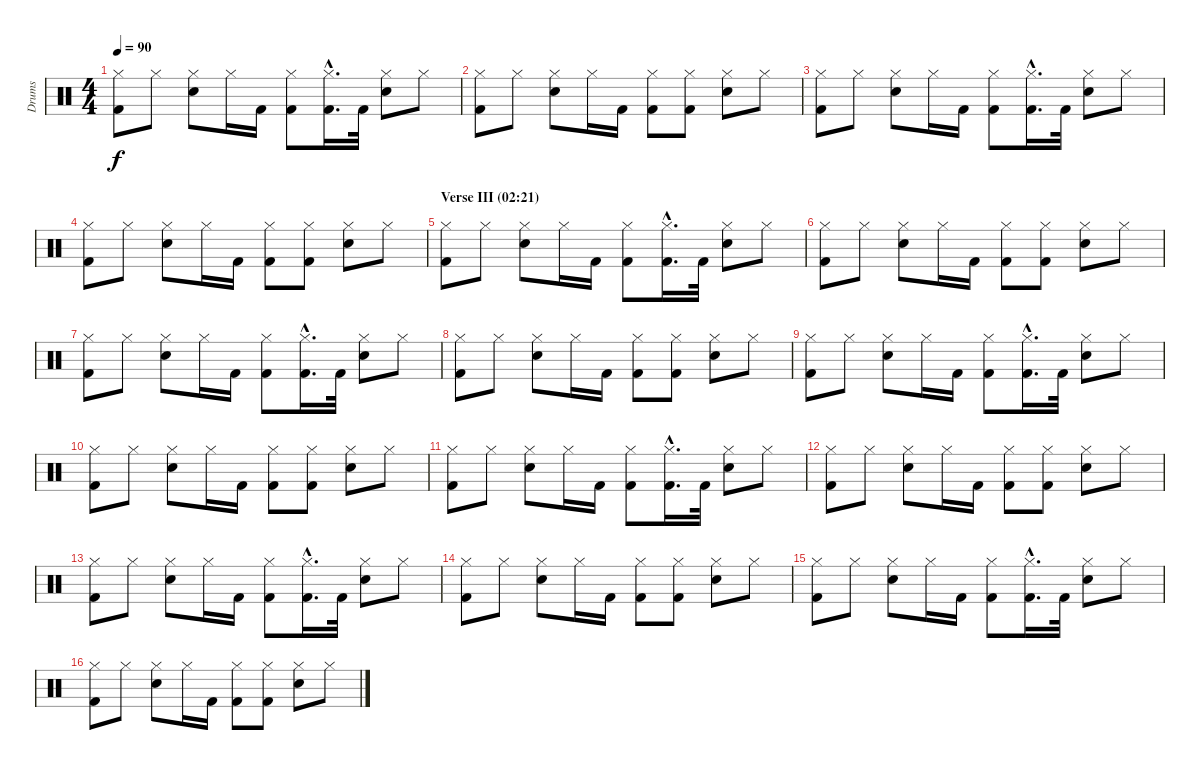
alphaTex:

\track ("Drums" "Drums") {instrument percussion}
\staff {score}
\articulation defaults
\ts (4 4)
\tempo 90
\clef neutral
\ks c
("Hi-Hat (closed)" "Kick (hit) 2").8{dy f} "Hi-Hat (closed)".8 ("Hi-Hat (closed)" "Electric Snare (hit)").8 "Hi-Hat (closed)".16 "Kick (hit) 2".16 ("Hi-Hat (closed)" "Kick (hit) 2").8 ("Hi-Hat (closed)"{hac} "Kick (hit) 2"{hac}).16{d} "Kick (hit) 2".32 ("Hi-Hat (closed)" "Electric Snare (hit)").8 "Hi-Hat (closed)".8 |
("Hi-Hat (closed)" "Kick (hit) 2").8 "Hi-Hat (closed)".8 ("Hi-Hat (closed)" "Electric Snare (hit)").8 "Hi-Hat (closed)".16 "Kick (hit) 2".16 ("Hi-Hat (closed)" "Kick (hit) 2").8 ("Hi-Hat (closed)" "Kick (hit) 2").8 ("Hi-Hat (closed)" "Electric Snare (hit)").8 "Hi-Hat (closed)".8 |
("Hi-Hat (closed)" "Kick (hit) 2").8 "Hi-Hat (closed)".8 ("Hi-Hat (closed)" "Electric Snare (hit)").8 "Hi-Hat (closed)".16 "Kick (hit) 2".16 ("Hi-Hat (closed)" "Kick (hit) 2").8 ("Hi-Hat (closed)"{hac} "Kick (hit) 2"{hac}).16{d} "Kick (hit) 2".32 ("Hi-Hat (closed)" "Electric Snare (hit)").8 "Hi-Hat (closed)".8 |
("Hi-Hat (closed)" "Kick (hit) 2").8 "Hi-Hat (closed)".8 ("Hi-Hat (closed)" "Electric Snare (hit)").8 "Hi-Hat (closed)".16 "Kick (hit) 2".16 ("Hi-Hat (closed)" "Kick (hit) 2").8 ("Hi-Hat (closed)" "Kick (hit) 2").8 ("Hi-Hat (closed)" "Electric Snare (hit)").8 "Hi-Hat (closed)".8 |
\section ("" "Verse III (02:21)")
("Hi-Hat (closed)" "Kick (hit) 2").8 "Hi-Hat (closed)".8 ("Hi-Hat (closed)" "Electric Snare (hit)").8 "Hi-Hat (closed)".16 "Kick (hit) 2".16 ("Hi-Hat (closed)" "Kick (hit) 2").8 ("Hi-Hat (closed)"{hac} "Kick (hit) 2"{hac}).16{d} "Kick (hit) 2".32 ("Hi-Hat (closed)" "Electric Snare (hit)").8 "Hi-Hat (closed)".8 |
("Hi-Hat (closed)" "Kick (hit) 2").8 "Hi-Hat (closed)".8 ("Hi-Hat (closed)" "Electric Snare (hit)").8 "Hi-Hat (closed)".16 "Kick (hit) 2".16 ("Hi-Hat (closed)" "Kick (hit) 2").8 ("Hi-Hat (closed)" "Kick (hit) 2").8 ("Hi-Hat (closed)" "Electric Snare (hit)").8 "Hi-Hat (closed)".8 |
("Hi-Hat (closed)" "Kick (hit) 2").8 "Hi-Hat (closed)".8 ("Hi-Hat (closed)" "Electric Snare (hit)").8 "Hi-Hat (closed)".16 "Kick (hit) 2".16 ("Hi-Hat (closed)" "Kick (hit) 2").8 ("Hi-Hat (closed)"{hac} "Kick (hit) 2"{hac}).16{d} "Kick (hit) 2".32 ("Hi-Hat (closed)" "Electric Snare (hit)").8 "Hi-Hat (closed)".8 |
("Hi-Hat (closed)" "Kick (hit) 2").8 "Hi-Hat (closed)".8 ("Hi-Hat (closed)" "Electric Snare (hit)").8 "Hi-Hat (closed)".16 "Kick (hit) 2".16 ("Hi-Hat (closed)" "Kick (hit) 2").8 ("Hi-Hat (closed)" "Kick (hit) 2").8 ("Hi-Hat (closed)" "Electric Snare (hit)").8 "Hi-Hat (closed)".8 |
("Hi-Hat (closed)" "Kick (hit) 2").8 "Hi-Hat (closed)".8 ("Hi-Hat (closed)" "Electric Snare (hit)").8 "Hi-Hat (closed)".16 "Kick (hit) 2".16 ("Hi-Hat (closed)" "Kick (hit) 2").8 ("Hi-Hat (closed)"{hac} "Kick (hit) 2"{hac}).16{d} "Kick (hit) 2".32 ("Hi-Hat (closed)" "Electric Snare (hit)").8 "Hi-Hat (closed)".8 |
("Hi-Hat (closed)" "Kick (hit) 2").8 "Hi-Hat (closed)".8 ("Hi-Hat (closed)" "Electric Snare (hit)").8 "Hi-Hat (closed)".16 "Kick (hit) 2".16 ("Hi-Hat (closed)" "Kick (hit) 2").8 ("Hi-Hat (closed)" "Kick (hit) 2").8 ("Hi-Hat (closed)" "Electric Snare (hit)").8 "Hi-Hat (closed)".8 |
("Hi-Hat (closed)" "Kick (hit) 2").8 "Hi-Hat (closed)".8 ("Hi-Hat (closed)" "Electric Snare (hit)").8 "Hi-Hat (closed)".16 "Kick (hit) 2".16 ("Hi-Hat (closed)" "Kick (hit) 2").8 ("Hi-Hat (closed)"{hac} "Kick (hit) 2"{hac}).16{d} "Kick (hit) 2".32 ("Hi-Hat (closed)" "Electric Snare (hit)").8 "Hi-Hat (closed)".8 |
("Hi-Hat (closed)" "Kick (hit) 2").8 "Hi-Hat (closed)".8 ("Hi-Hat (closed)" "Electric Snare (hit)").8 "Hi-Hat (closed)".16 "Kick (hit) 2".16 ("Hi-Hat (closed)" "Kick (hit) 2").8 ("Hi-Hat (closed)" "Kick (hit) 2").8 ("Hi-Hat (closed)" "Electric Snare (hit)").8 "Hi-Hat (closed)".8 |
("Hi-Hat (closed)" "Kick (hit) 2").8 "Hi-Hat (closed)".8 ("Hi-Hat (closed)" "Electric Snare (hit)").8 "Hi-Hat (closed)".16 "Kick (hit) 2".16 ("Hi-Hat (closed)" "Kick (hit) 2").8 ("Hi-Hat (closed)"{hac} "Kick (hit) 2"{hac}).16{d} "Kick (hit) 2".32 ("Hi-Hat (closed)" "Electric Snare (hit)").8 "Hi-Hat (closed)".8 |
("Hi-Hat (closed)" "Kick (hit) 2").8 "Hi-Hat (closed)".8 ("Hi-Hat (closed)" "Electric Snare (hit)").8 "Hi-Hat (closed)".16 "Kick (hit) 2".16 ("Hi-Hat (closed)" "Kick (hit) 2").8 ("Hi-Hat (closed)" "Kick (hit) 2").8 ("Hi-Hat (closed)" "Electric Snare (hit)").8 "Hi-Hat (closed)".8 |
("Hi-Hat (closed)" "Kick (hit) 2").8 "Hi-Hat (closed)".8 ("Hi-Hat (closed)" "Electric Snare (hit)").8 "Hi-Hat (closed)".16 "Kick (hit) 2".16 ("Hi-Hat (closed)" "Kick (hit) 2").8 ("Hi-Hat (closed)"{hac} "Kick (hit) 2"{hac}).16{d} "Kick (hit) 2".32 ("Hi-Hat (closed)" "Electric Snare (hit)").8 "Hi-Hat (closed)".8 |
("Hi-Hat (closed)" "Kick (hit) 2").8 "Hi-Hat (closed)".8 ("Hi-Hat (closed)" "Electric Snare (hit)").8 "Hi-Hat (closed)".16 "Kick (hit) 2".16 ("Hi-Hat (closed)" "Kick (hit) 2").8 ("Hi-Hat (closed)" "Kick (hit) 2").8 ("Hi-Hat (closed)" "Electric Snare (hit)").8 "Hi-Hat (closed)".8
